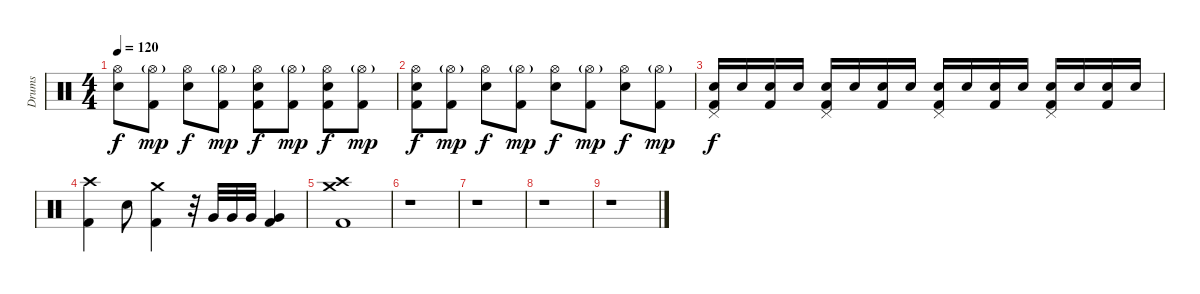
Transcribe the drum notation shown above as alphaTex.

\track ("Drums" "Drums") {instrument percussion}
\staff {score}
\articulation defaults
\ts (4 4)
\tempo 120
\clef neutral
\ks c
("Hi-Hat (open)" "Electric Snare (hit)").8{dy f} ("Hi-Hat (open)"{g} "Kick (hit) 2").8{dy mp} ("Hi-Hat (open)" "Electric Snare (hit)").8{dy f} ("Hi-Hat (open)"{g} "Kick (hit) 2").8{dy mp} ("Hi-Hat (open)" "Electric Snare (hit)" "Kick (hit) 2").8{dy f} ("Hi-Hat (open)"{g} "Kick (hit) 2").8{dy mp} ("Hi-Hat (open)" "Electric Snare (hit)" "Kick (hit) 2").8{dy f} ("Hi-Hat (open)"{g} "Kick (hit) 2").8{dy mp} |
("Hi-Hat (open)" "Electric Snare (hit)" "Kick (hit) 2").8{dy f} ("Hi-Hat (open)"{g} "Kick (hit) 2").8{dy mp} ("Hi-Hat (open)" "Electric Snare (hit)").8{dy f} ("Hi-Hat (open)"{g} "Kick (hit) 2").8{dy mp} ("Hi-Hat (open)" "Electric Snare (hit)").8{dy f} ("Hi-Hat (open)"{g} "Kick (hit) 2").8{dy mp} ("Hi-Hat (open)" "Electric Snare (hit)").8{dy f} ("Hi-Hat (open)"{g} "Kick (hit) 2").8{dy mp} |
("Pedal Hi-Hat (hit)" "Electric Snare (hit)" "Kick (hit) 2").16{dy f} "Electric Snare (hit)".16 ("Electric Snare (hit)" "Kick (hit) 2").16 "Electric Snare (hit)".16 ("Pedal Hi-Hat (hit)" "Electric Snare (hit)" "Kick (hit) 2").16 "Electric Snare (hit)".16 ("Electric Snare (hit)" "Kick (hit) 2").16 "Electric Snare (hit)".16 ("Pedal Hi-Hat (hit)" "Electric Snare (hit)" "Kick (hit) 2").16 "Electric Snare (hit)".16 ("Electric Snare (hit)" "Kick (hit) 2").16 "Electric Snare (hit)".16 ("Pedal Hi-Hat (hit)" "Electric Snare (hit)" "Kick (hit) 2").16 "Electric Snare (hit)".16 ("Electric Snare (hit)" "Kick (hit) 2").16 "Electric Snare (hit)".16 |
("Crash high (hit)" "Kick (hit) 2").4 "Electric Snare (hit)".8 ("Crash medium (hit)" "Kick (hit) 2").4 r.32 "Very Low Tom (hit)".32 "Very Low Tom (hit)".32 "Very Low Tom (hit)".32 ("Very Low Tom (hit)" "Kick (hit) 2").4 |
("Crash high (hit)" "Crash medium (hit)" "Kick (hit) 2").1 |
r.1 |
r.1 |
r.1 |
r.1
